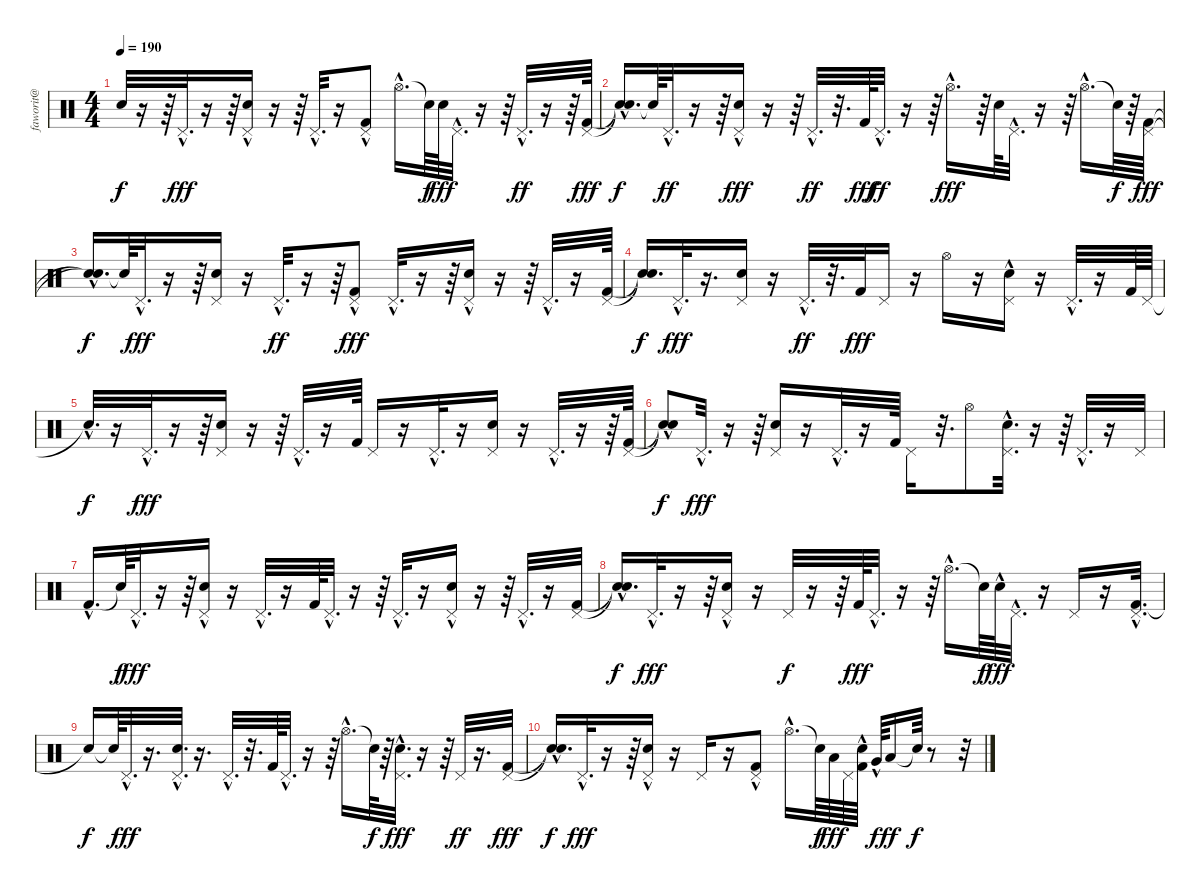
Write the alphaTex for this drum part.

\track ("faworit@" "faworit@") {instrument percussion}
\staff {score}
\articulation defaults
\ts (4 4)
\tempo 190
\clef neutral
\ks c "Snare (hit)"{t}.32{dy f}
r.16 r.64 "Pedal Hi-Hat (hit)"{hac}.32{d dy fff} r.16 r.64 ("Snare (hit) 2"{hac} "Pedal Hi-Hat (hit)").16 r.16 r.64 "Pedal Hi-Hat (hit)"{hac}.32{d} r.16 ("Pedal Hi-Hat (hit)"{hac} "Kick (hit) 2").8 "Hi-Hat (open)"{hac}.16{d} "Snare (hit)"{t}.64{dy f} "Snare (hit) 2".64{dy fff} "Pedal Hi-Hat (hit)"{hac}.32{d} r.16 r.64 "Pedal Hi-Hat (hit)"{hac}.32{d dy ff} r.16 r.64 ("Kick (hit) 2" "Pedal Hi-Hat (hit)").64{dy fff} |
("Snare (hit)"{hac t} "Snare (hit)"{t}).16{d dy f} "Snare (hit)"{t}.64 "Pedal Hi-Hat (hit)"{hac}.32{d dy ff} r.16 r.64 ("Snare (hit) 2"{hac} "Pedal Hi-Hat (hit)").16{dy fff} r.16 r.64 "Pedal Hi-Hat (hit)"{hac}.32{d dy ff} r.32{d} "Kick (hit) 2".64{dy fff} "Pedal Hi-Hat (hit)"{hac}.32{d dy ff} r.16 r.64 "Hi-Hat (open)"{hac}.16{d dy fff} r.64 "Snare (hit) 2".64 "Pedal Hi-Hat (hit)"{hac}.32{d} r.16 r.64 "Hi-Hat (open)"{hac}.16{d} "Snare (hit)"{t}.64{dy f} r.64 ("Kick (hit) 2" "Pedal Hi-Hat (hit)").64{dy fff} |
("Snare (hit)"{hac t} "Snare (hit)"{t}).16{d dy f} "Snare (hit)"{t}.64 "Pedal Hi-Hat (hit)"{hac}.32{d dy fff} r.16 r.64 ("Snare (hit) 2" "Pedal Hi-Hat (hit)").16 r.16 "Pedal Hi-Hat (hit)"{hac}.32{d dy ff} r.16 r.64 ("Kick (hit) 2" "Pedal Hi-Hat (hit)"{hac}).8{dy fff} "Pedal Hi-Hat (hit)"{hac}.32{d} r.16 r.64 ("Snare (hit) 2" "Pedal Hi-Hat (hit)"{hac}).16 r.16 r.64 "Pedal Hi-Hat (hit)"{hac}.32{d} r.16 ("Kick (hit) 2" "Pedal Hi-Hat (hit)").64 |
("Snare (hit)"{t} "Snare (hit)"{t}).16{d dy f} "Pedal Hi-Hat (hit)"{hac}.32{d dy fff} r.16{d} ("Pedal Hi-Hat (hit)" "Snare (hit) 2").16 r.16 "Pedal Hi-Hat (hit)"{hac}.32{d dy ff} r.32{d} "Kick (hit) 2".32{dy fff} "Pedal Hi-Hat (hit)".16 r.16 "Hi-Hat (open)".16 r.16 ("Snare (hit) 2"{hac} "Pedal Hi-Hat (hit)").16 r.16 "Pedal Hi-Hat (hit)"{hac}.32{d} r.16 "Kick (hit) 2".64 "Pedal Hi-Hat (hit)".64 |
"Snare (hit)"{hac t}.32{d dy f} r.16 "Pedal Hi-Hat (hit)"{hac}.32{d dy fff} r.16 r.64 ("Pedal Hi-Hat (hit)" "Snare (hit) 2").16 r.16 r.64 "Pedal Hi-Hat (hit)"{hac}.32{d} r.16 "Kick (hit) 2".64 "Pedal Hi-Hat (hit)".16 r.16 "Pedal Hi-Hat (hit)"{hac}.32{d} r.16 ("Pedal Hi-Hat (hit)" "Snare (hit) 2").16 r.16 "Pedal Hi-Hat (hit)"{hac}.32{d} r.16 r.64 ("Pedal Hi-Hat (hit)" "Kick (hit) 2").64 |
("Snare (hit)"{hac t} "Snare (hit)"{t}).8{dy f} "Pedal Hi-Hat (hit)"{hac}.32{d dy fff} r.16 r.64 ("Snare (hit) 2" "Pedal Hi-Hat (hit)").16 r.16 "Pedal Hi-Hat (hit)"{hac}.32{d} r.16 "Kick (hit) 2".64 "Pedal Hi-Hat (hit)".16 r.32{d} "Hi-Hat (open)".8 ("Snare (hit) 2"{hac} "Pedal Hi-Hat (hit)"{hac}).32{d} r.16 r.64 "Pedal Hi-Hat (hit)"{hac}.32{d} r.16 "Pedal Hi-Hat (hit)".32 |
"Kick (hit) 2"{hac}.16{d} "Snare (hit)"{t}.64{dy f} "Pedal Hi-Hat (hit)"{hac}.32{d dy fff} r.16 r.64 ("Pedal Hi-Hat (hit)"{hac} "Snare (hit) 2").16 r.16 "Pedal Hi-Hat (hit)"{hac}.32{d} r.16 "Kick (hit) 2".64 "Pedal Hi-Hat (hit)"{hac}.32{d} r.16 r.64 "Pedal Hi-Hat (hit)"{hac}.32{d} r.16 ("Snare (hit) 2" "Pedal Hi-Hat (hit)"{hac}).16 r.16 r.64 "Pedal Hi-Hat (hit)"{hac}.32{d} r.16 ("Kick (hit) 2" "Pedal Hi-Hat (hit)").32 |
("Snare (hit)"{hac t} "Snare (hit)"{t}).16{d dy f} "Pedal Hi-Hat (hit)"{hac}.32{d dy fff} r.16 r.64 ("Pedal Hi-Hat (hit)"{hac} "Snare (hit) 2").16 r.16 "Pedal Hi-Hat (hit)".32{dy f} r.16 r.64 "Kick (hit) 2".64{dy fff} "Pedal Hi-Hat (hit)"{hac}.32{d} r.16 r.64 "Hi-Hat (open)"{hac}.16{d} "Snare (hit)"{t}.64{dy f} "Snare (hit) 2"{hac}.64{dy fff} "Pedal Hi-Hat (hit)"{hac}.32{d} r.16 "Pedal Hi-Hat (hit)".16 r.16 ("Kick (hit) 2"{hac} "Pedal Hi-Hat (hit)"{hac}).32{d} |
"Snare (hit)"{t}.16{dy f} "Snare (hit)"{t}.64 "Pedal Hi-Hat (hit)"{hac}.32{d dy fff} r.16{d} ("Snare (hit) 2"{hac} "Pedal Hi-Hat (hit)"{hac}).32{d} r.16{d} "Pedal Hi-Hat (hit)"{hac}.32{d} r.32{d} "Kick (hit) 2".64 "Pedal Hi-Hat (hit)"{hac}.32{d} r.16 r.64 "Hi-Hat (open)"{hac}.16{d} "Snare (hit)"{t}.64{dy f} r.64 ("Pedal Hi-Hat (hit)"{hac} "Snare (hit) 2"{hac}).32{d dy fff} r.16 r.64 "Pedal Hi-Hat (hit)".32{dy ff} r.16{d} ("Kick (hit) 2" "Pedal Hi-Hat (hit)").32{dy fff} |
("Snare (hit)"{hac t} "Snare (hit)"{t}).16{d dy f} "Pedal Hi-Hat (hit)"{hac}.32{d dy fff} r.16 r.64 ("Snare (hit) 2"{hac} "Pedal Hi-Hat (hit)").16 r.16 "Pedal Hi-Hat (hit)".16 r.16 ("Pedal Hi-Hat (hit)"{hac} "Kick (hit) 2").8 "Hi-Hat (open)"{hac}.16{d} "Snare (hit)"{t}.64{dy f} "Low Tom (hit)".64{dy fff} "Pedal Hi-Hat (hit)".64 ("Snare (hit) 2"{hac} "Kick (hit) 2").64 "Very Low Tom (hit)"{hac}.64{dy f} "Low Floor Tom (hit)".16{dy ff} "Snare (hit)"{t}.64{dy f} r.8 r.32
